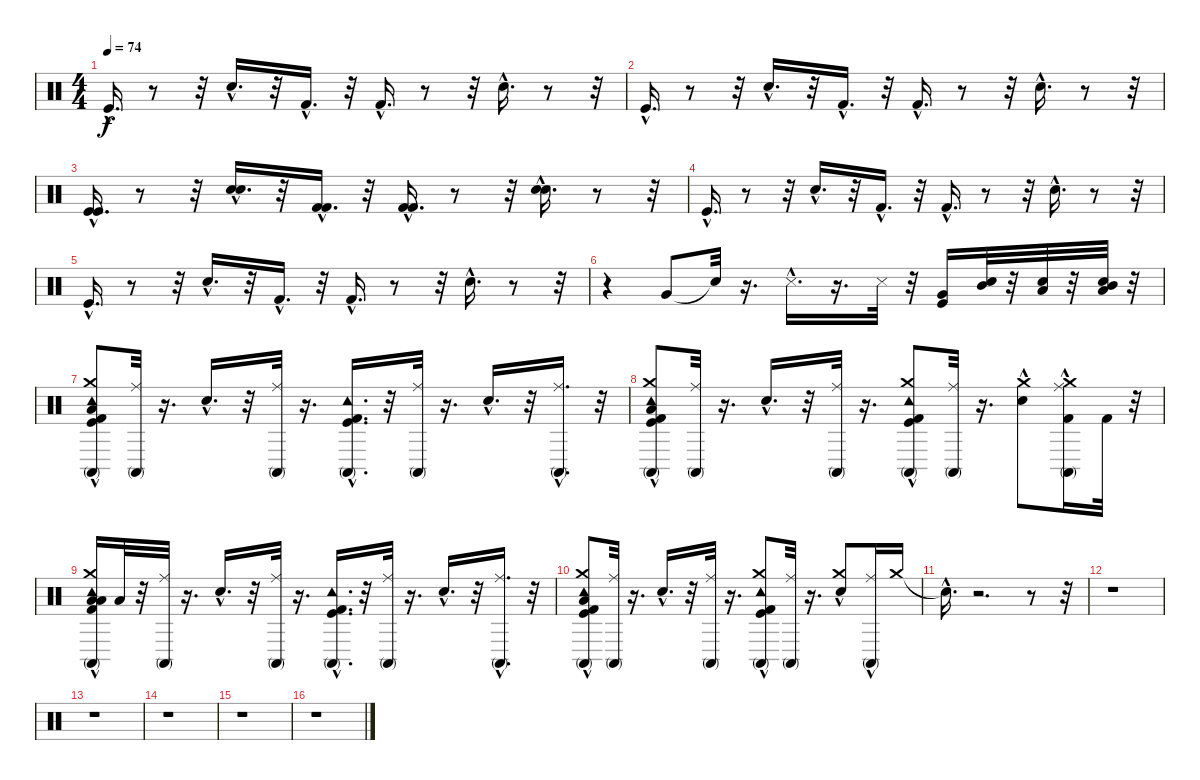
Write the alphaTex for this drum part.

\track "" {instrument percussion}
\staff {score}
\articulation defaults
\ts (4 4)
\tempo 74
\clef neutral
\ks c "Kick (hit)"{hac}.16{d dy f}
r.8 r.32 "Electric Snare (hit)"{hac}.16{d} r.32 "Kick (hit) 2"{hac}.16{d} r.32 "Kick (hit) 2"{hac}.16{d} r.8 r.32 "Electric Snare (hit)"{hac}.16{d} r.8 r.32 |
"Kick (hit)"{hac}.16{d} r.8 r.32 "Electric Snare (hit)"{hac}.16{d} r.32 "Kick (hit) 2"{hac}.16{d} r.32 "Kick (hit) 2"{hac}.16{d} r.8 r.32 "Electric Snare (hit)"{hac}.16{d} r.8 r.32 |
("Kick (hit)"{hac} "Kick (hit)"{hac}).16{d} r.8 r.32 ("Electric Snare (hit)"{hac} "Electric Snare (hit)"{hac}).16{d} r.32 ("Kick (hit) 2"{hac} "Kick (hit) 2"{hac}).16{d} r.32 ("Kick (hit) 2"{hac} "Kick (hit) 2"{hac}).16{d} r.8 r.32 ("Electric Snare (hit)"{hac} "Electric Snare (hit)"{hac}).16{d} r.8 r.32 |
"Kick (hit)"{hac}.16{d} r.8 r.32 "Electric Snare (hit)"{hac}.16{d} r.32 "Kick (hit) 2"{hac}.16{d} r.32 "Kick (hit) 2"{hac}.16{d} r.8 r.32 "Electric Snare (hit)"{hac}.16{d} r.8 r.32 |
"Kick (hit)"{hac}.16{d} r.8 r.32 "Electric Snare (hit)"{hac}.16{d} r.32 "Kick (hit) 2"{hac}.16{d} r.32 "Kick (hit) 2"{hac}.16{d} r.8 r.32 "Electric Snare (hit)"{hac}.16{d} r.8 r.32 |
r.4 "Very Low Tom (hit)".8 "Snare (hit)"{t}.32 r.16{d} "Metronome (hit)"{hac}.16{d} r.16{d} "Metronome (hit)".32 r.32 ("Kick (hit)" "Very Low Tom (hit)").16 ("Mid Tom (hit)" "Snare (hit) 2").32 r.32 ("Low Floor Tom (hit)" "Snare (hit) 2").32 r.32 ("Mid Tom (hit)" "Low Floor Tom (hit)" "Snare (hit) 2").32 r.32 |
("Crash medium (hit)" "Low Floor Tom (hit)" "Conga high (mute)" "Tambourine (hit)"{hac} "Kick (hit) 2"{hac} "Kick (hit)"{hac}).8 ("Conga high (mute)" "Ride (middle)").32 r.16{d} "Snare (hit) 2"{hac}.16{d} r.32 ("Conga high (mute)" "Ride (middle)").32 r.16{d} ("Conga high (mute)" "Tambourine (hit)"{hac} "Kick (hit) 2"{hac} "Kick (hit)"{hac}).16{d} r.32 ("Conga high (mute)" "Ride (middle)").32 r.16{d} "Snare (hit) 2"{hac}.16{d} r.32 ("Conga high (mute)"{hac} "Ride (middle)").16{d} r.32 |
("Crash medium (hit)" "Low Floor Tom (hit)" "Conga high (mute)" "Tambourine (hit)"{hac} "Kick (hit) 2"{hac} "Kick (hit)"{hac}).8 ("Conga high (mute)" "Ride (middle)").32 r.16{d} "Snare (hit) 2"{hac}.16{d} r.32 ("Conga high (mute)" "Ride (middle)").32 r.16{d} ("Crash medium (hit)" "Conga high (mute)" "Tambourine (hit)"{hac} "Kick (hit) 2"{hac} "Kick (hit)").8 ("Conga high (mute)" "Ride (middle)").32 r.16{d} ("Crash medium (hit)" "Snare (hit) 2"{hac}).8 ("Crash medium (hit)" "Kick (hit) 2" "Conga high (mute)"{hac} "Ride (middle)").16 "Kick (hit) 2".32 r.32 |
("Low Tom (hit)" "Crash medium (hit)" "Low Floor Tom (hit)" "Conga high (mute)" "Tambourine (hit)"{hac} "Kick (hit) 2"{hac}).16 "Low Floor Tom (hit)".32 r.32 ("Conga high (mute)" "Ride (middle)").32 r.16{d} "Snare (hit) 2"{hac}.16{d} r.32 ("Conga high (mute)" "Ride (middle)").32 r.16{d} ("Conga high (mute)" "Tambourine (hit)"{hac} "Kick (hit) 2"{hac} "Kick (hit)"{hac}).16{d} r.32 ("Conga high (mute)" "Ride (middle)").32 r.16{d} "Snare (hit) 2"{hac}.16{d} r.32 ("Conga high (mute)"{hac} "Ride (middle)").16{d} r.32 |
("Crash medium (hit)" "Low Floor Tom (hit)" "Conga high (mute)" "Tambourine (hit)"{hac} "Kick (hit) 2"{hac} "Kick (hit)"{hac}).8 ("Conga high (mute)" "Ride (middle)").32 r.16{d} "Snare (hit) 2"{hac}.16{d} r.32 ("Conga high (mute)" "Ride (middle)").32 r.16{d} ("Crash medium (hit)" "Conga high (mute)" "Tambourine (hit)"{hac} "Kick (hit) 2"{hac} "Kick (hit)"{hac}).8 ("Conga high (mute)" "Ride (middle)").32 r.16{d} ("Crash medium (hit)" "Snare (hit) 2"{hac}).8 ("Conga high (mute)"{hac} "Ride (middle)").16 "Crash medium (hit)".16 |
"Snare (hit)"{hac t}.16{d} r.2{d} r.8 r.32 |
r.1 |
r.1 |
r.1 |
r.1 |
r.1
